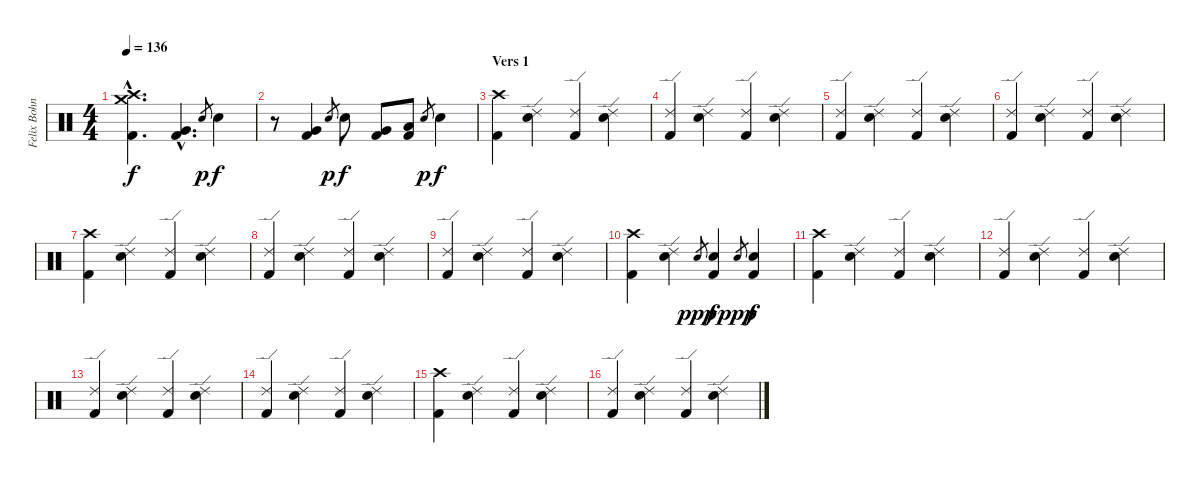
\track ("Felix Bohnke" "Felix Bohn") {instrument percussion}
\staff {score}
\articulation defaults
\ts (4 4)
\tempo 136
\clef neutral
\ks c
("Crash high (hit)"{hac} "Crash medium (hit)"{hac} "Kick (hit) 2"{hac}).4{d dy f} ("Very Low Tom (hit)"{hac} "Kick (hit) 2"{hac}).4{d} "Snare (hit) 2".8{gr dy p} "Snare (hit) 2".4{dy f} |
r.8 ("Very Low Tom (hit)" "Kick (hit) 2").4 "Snare (hit) 2".8{gr dy p} "Snare (hit) 2".8{dy f} ("Very Low Tom (hit)" "Kick (hit) 2").8 ("Low Tom (hit)" "Kick (hit) 2").8 "Snare (hit) 2".8{gr dy p} "Snare (hit) 2".4{dy f} |
\section ("" "Vers 1")
("Crash high (hit)" "Kick (hit) 2").4 ("Ride (edge) 2" "Snare (hit) 2").4 ("Ride (edge) 2" "Kick (hit) 2").4 ("Ride (edge) 2" "Snare (hit) 2").4 |
("Ride (edge) 2" "Kick (hit) 2").4 ("Ride (edge) 2" "Snare (hit) 2").4 ("Ride (edge) 2" "Kick (hit) 2").4 ("Ride (edge) 2" "Snare (hit) 2").4 |
("Ride (edge) 2" "Kick (hit) 2").4 ("Ride (edge) 2" "Snare (hit) 2").4 ("Ride (edge) 2" "Kick (hit) 2").4 ("Ride (edge) 2" "Snare (hit) 2").4 |
("Ride (edge) 2" "Kick (hit) 2").4 ("Ride (edge) 2" "Snare (hit) 2").4 ("Ride (edge) 2" "Kick (hit) 2").4 ("Ride (edge) 2" "Snare (hit) 2").4 |
("Crash high (hit)" "Kick (hit) 2").4 ("Ride (edge) 2" "Snare (hit) 2").4 ("Ride (edge) 2" "Kick (hit) 2").4 ("Ride (edge) 2" "Snare (hit) 2").4 |
("Ride (edge) 2" "Kick (hit) 2").4 ("Ride (edge) 2" "Snare (hit) 2").4 ("Ride (edge) 2" "Kick (hit) 2").4 ("Ride (edge) 2" "Snare (hit) 2").4 |
("Ride (edge) 2" "Kick (hit) 2").4 ("Ride (edge) 2" "Snare (hit) 2").4 ("Ride (edge) 2" "Kick (hit) 2").4 ("Ride (edge) 2" "Snare (hit) 2").4 |
("Crash high (hit)" "Kick (hit) 2").4 ("Ride (edge) 2" "Snare (hit) 2").4 "Snare (hit) 2".8{gr dy ppp} ("Snare (hit) 2" "Kick (hit) 2").4{dy f} "Snare (hit) 2".8{gr dy ppp} ("Snare (hit) 2" "Kick (hit) 2").4{dy f} |
("Crash high (hit)" "Kick (hit) 2").4 ("Ride (edge) 2" "Snare (hit) 2").4 ("Ride (edge) 2" "Kick (hit) 2").4 ("Ride (edge) 2" "Snare (hit) 2").4 |
("Ride (edge) 2" "Kick (hit) 2").4 ("Ride (edge) 2" "Snare (hit) 2").4 ("Ride (edge) 2" "Kick (hit) 2").4 ("Ride (edge) 2" "Snare (hit) 2").4 |
("Ride (edge) 2" "Kick (hit) 2").4 ("Ride (edge) 2" "Snare (hit) 2").4 ("Ride (edge) 2" "Kick (hit) 2").4 ("Ride (edge) 2" "Snare (hit) 2").4 |
("Ride (edge) 2" "Kick (hit) 2").4 ("Ride (edge) 2" "Snare (hit) 2").4 ("Ride (edge) 2" "Kick (hit) 2").4 ("Ride (edge) 2" "Snare (hit) 2").4 |
("Crash high (hit)" "Kick (hit) 2").4 ("Ride (edge) 2" "Snare (hit) 2").4 ("Ride (edge) 2" "Kick (hit) 2").4 ("Ride (edge) 2" "Snare (hit) 2").4 |
("Ride (edge) 2" "Kick (hit) 2").4 ("Ride (edge) 2" "Snare (hit) 2").4 ("Ride (edge) 2" "Kick (hit) 2").4 ("Ride (edge) 2" "Snare (hit) 2").4
